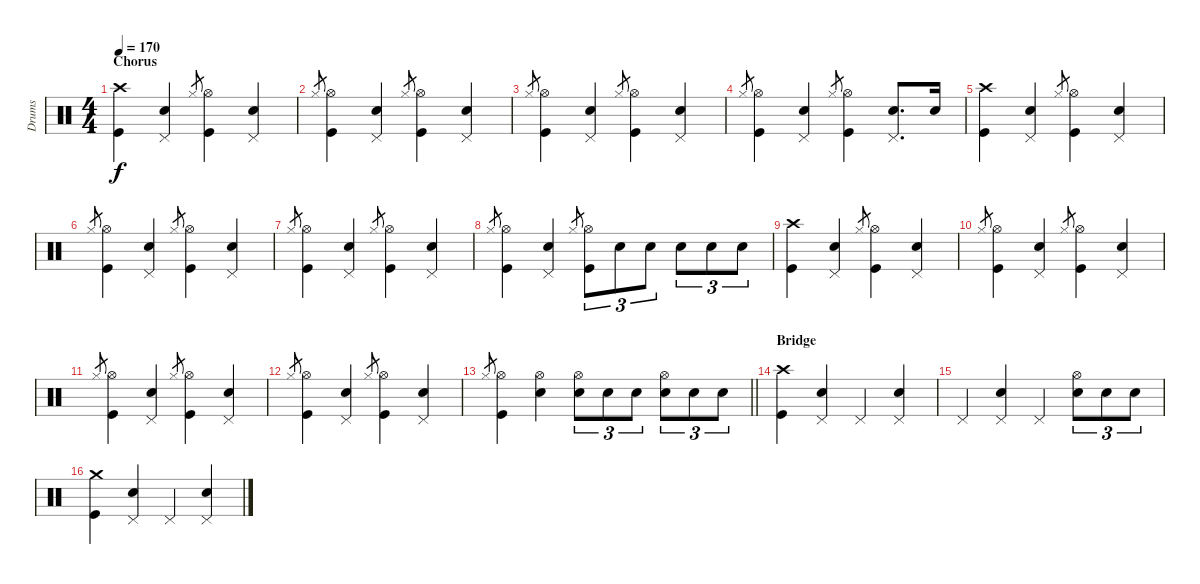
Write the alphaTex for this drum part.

\track ("Drums" "Drums") {instrument percussion}
\staff {score}
\articulation defaults
\ts (4 4)
\section ("" "Chorus")
\tempo 170
\clef neutral
\ks aminor
("Kick (hit)" "Crash high (hit)").4{dy f} ("Electric Snare (hit)" "Pedal Hi-Hat (hit)").4 "Hi-Hat (closed)".8{gr} ("Kick (hit)" "Hi-Hat (open)").4 ("Electric Snare (hit)" "Pedal Hi-Hat (hit)").4 |
"Hi-Hat (closed)".8{gr} ("Kick (hit)" "Hi-Hat (open)").4 ("Electric Snare (hit)" "Pedal Hi-Hat (hit)").4 "Hi-Hat (closed)".8{gr} ("Kick (hit)" "Hi-Hat (open)").4 ("Electric Snare (hit)" "Pedal Hi-Hat (hit)").4 |
"Hi-Hat (closed)".8{gr} ("Kick (hit)" "Hi-Hat (open)").4 ("Electric Snare (hit)" "Pedal Hi-Hat (hit)").4 "Hi-Hat (closed)".8{gr} ("Kick (hit)" "Hi-Hat (open)").4 ("Electric Snare (hit)" "Pedal Hi-Hat (hit)").4 |
"Hi-Hat (closed)".8{gr} ("Kick (hit)" "Hi-Hat (open)").4 ("Electric Snare (hit)" "Pedal Hi-Hat (hit)").4 "Hi-Hat (closed)".8{gr} ("Kick (hit)" "Hi-Hat (open)").4 ("Electric Snare (hit)" "Pedal Hi-Hat (hit)").8{d} "Electric Snare (hit)".16 |
("Kick (hit)" "Crash high (hit)").4 ("Electric Snare (hit)" "Pedal Hi-Hat (hit)").4 "Hi-Hat (closed)".8{gr} ("Kick (hit)" "Hi-Hat (open)").4 ("Electric Snare (hit)" "Pedal Hi-Hat (hit)").4 |
"Hi-Hat (closed)".8{gr} ("Kick (hit)" "Hi-Hat (open)").4 ("Electric Snare (hit)" "Pedal Hi-Hat (hit)").4 "Hi-Hat (closed)".8{gr} ("Kick (hit)" "Hi-Hat (open)").4 ("Electric Snare (hit)" "Pedal Hi-Hat (hit)").4 |
"Hi-Hat (closed)".8{gr} ("Kick (hit)" "Hi-Hat (open)").4 ("Electric Snare (hit)" "Pedal Hi-Hat (hit)").4 "Hi-Hat (closed)".8{gr} ("Kick (hit)" "Hi-Hat (open)").4 ("Electric Snare (hit)" "Pedal Hi-Hat (hit)").4 |
"Hi-Hat (closed)".8{gr} ("Kick (hit)" "Hi-Hat (open)").4 ("Electric Snare (hit)" "Pedal Hi-Hat (hit)").4 "Hi-Hat (closed)".8{gr} ("Kick (hit)" "Hi-Hat (open)").8{tu (3 2)} "Electric Snare (hit)".8{tu (3 2)} "Electric Snare (hit)".8{tu (3 2)} "Electric Snare (hit)".8{tu (3 2)} "Electric Snare (hit)".8{tu (3 2)} "Electric Snare (hit)".8{tu (3 2)} |
("Kick (hit)" "Crash high (hit)").4 ("Electric Snare (hit)" "Pedal Hi-Hat (hit)").4 "Hi-Hat (closed)".8{gr} ("Kick (hit)" "Hi-Hat (open)").4 ("Electric Snare (hit)" "Pedal Hi-Hat (hit)").4 |
"Hi-Hat (closed)".8{gr} ("Kick (hit)" "Hi-Hat (open)").4 ("Electric Snare (hit)" "Pedal Hi-Hat (hit)").4 "Hi-Hat (closed)".8{gr} ("Kick (hit)" "Hi-Hat (open)").4 ("Electric Snare (hit)" "Pedal Hi-Hat (hit)").4 |
"Hi-Hat (closed)".8{gr} ("Kick (hit)" "Hi-Hat (open)").4 ("Electric Snare (hit)" "Pedal Hi-Hat (hit)").4 "Hi-Hat (closed)".8{gr} ("Kick (hit)" "Hi-Hat (open)").4 ("Electric Snare (hit)" "Pedal Hi-Hat (hit)").4 |
"Hi-Hat (closed)".8{gr} ("Kick (hit)" "Hi-Hat (open)").4 ("Electric Snare (hit)" "Pedal Hi-Hat (hit)").4 "Hi-Hat (closed)".8{gr} ("Kick (hit)" "Hi-Hat (open)").4 ("Electric Snare (hit)" "Pedal Hi-Hat (hit)").4 |
\barLineRight lightlight "Hi-Hat (closed)".8{gr}
("Kick (hit)" "Hi-Hat (open)").4 ("Hi-Hat (open)" "Electric Snare (hit)").4 ("Hi-Hat (open)" "Electric Snare (hit)").8{tu (3 2)} "Electric Snare (hit)".8{tu (3 2)} "Electric Snare (hit)".8{tu (3 2)} ("Hi-Hat (open)" "Electric Snare (hit)").8{tu (3 2)} "Electric Snare (hit)".8{tu (3 2)} "Electric Snare (hit)".8{tu (3 2)} |
\section ("" "Bridge")
("Kick (hit)" "Crash high (hit)").4 ("Electric Snare (hit)" "Pedal Hi-Hat (hit)").4 "Pedal Hi-Hat (hit)".4 ("Electric Snare (hit)" "Pedal Hi-Hat (hit)").4 |
"Pedal Hi-Hat (hit)".4 ("Electric Snare (hit)" "Pedal Hi-Hat (hit)").4 "Pedal Hi-Hat (hit)".4 ("Hi-Hat (open)" "Electric Snare (hit)").8{tu (3 2)} "Electric Snare (hit)".8{tu (3 2)} "Electric Snare (hit)".8{tu (3 2)} |
("Kick (hit)" "Crash medium (hit)").4 ("Electric Snare (hit)" "Pedal Hi-Hat (hit)").4 "Pedal Hi-Hat (hit)".4 ("Electric Snare (hit)" "Pedal Hi-Hat (hit)").4
